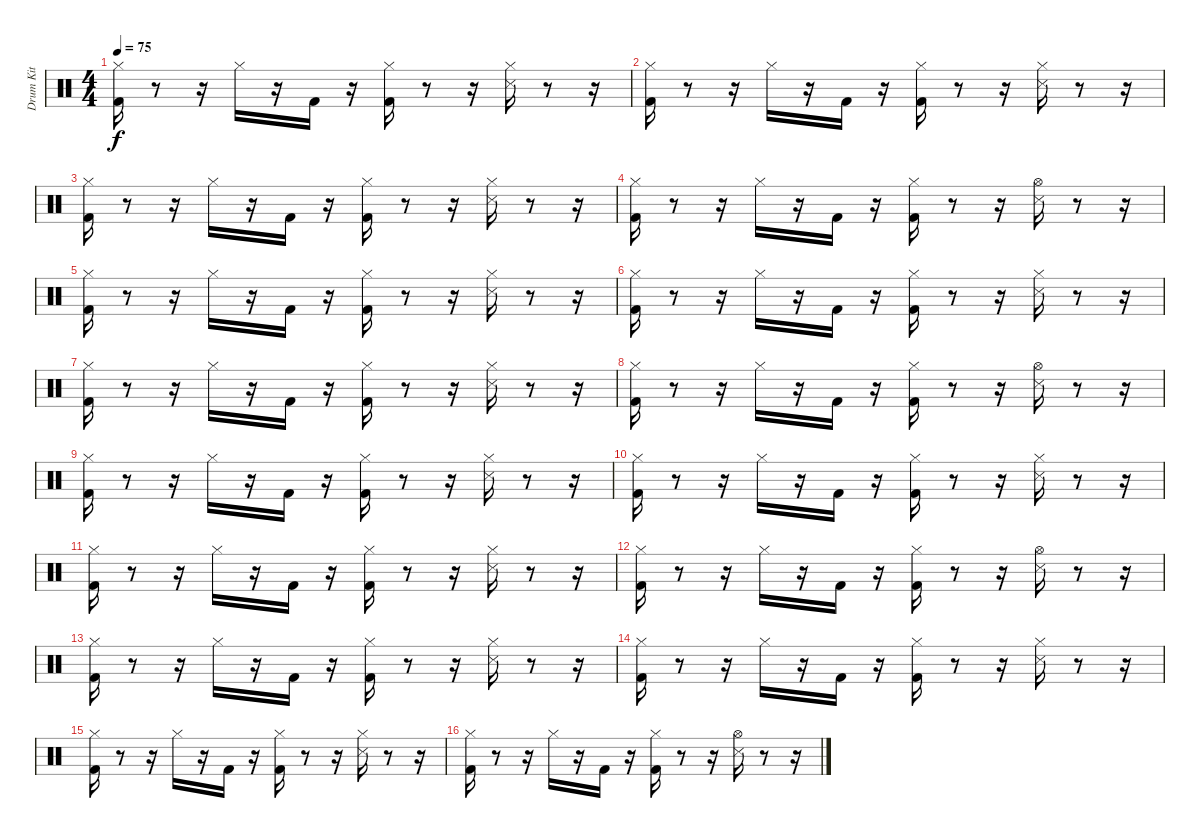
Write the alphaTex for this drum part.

\track ("Drum Kit" "Drum Kit") {instrument percussion}
\staff {score}
\articulation defaults
\ts (4 4)
\tempo 75
\clef neutral
\ks c
("Hi-Hat (closed)" "Kick (hit) 2").16{dy f} r.8 r.16 "Hi-Hat (closed)".16 r.16 "Kick (hit) 2".16 r.16 ("Kick (hit) 2" "Hi-Hat (closed)").16 r.8 r.16 ("Snare (side stick) 3" "Hi-Hat (closed)").16 r.8 r.16 |
("Kick (hit) 2" "Hi-Hat (closed)").16 r.8 r.16 "Hi-Hat (closed)".16 r.16 "Kick (hit) 2".16 r.16 ("Kick (hit) 2" "Hi-Hat (closed)").16 r.8 r.16 ("Snare (side stick) 3" "Hi-Hat (closed)").16 r.8 r.16 |
("Hi-Hat (closed)" "Kick (hit) 2").16 r.8 r.16 "Hi-Hat (closed)".16 r.16 "Kick (hit) 2".16 r.16 ("Kick (hit) 2" "Hi-Hat (closed)").16 r.8 r.16 ("Snare (side stick) 3" "Hi-Hat (closed)").16 r.8 r.16 |
("Hi-Hat (closed)" "Kick (hit) 2").16 r.8 r.16 "Hi-Hat (closed)".16 r.16 "Kick (hit) 2".16 r.16 ("Kick (hit) 2" "Hi-Hat (closed)").16 r.8 r.16 ("Snare (side stick) 3" "Hi-Hat (open)").16 r.8 r.16 |
("Hi-Hat (closed)" "Kick (hit) 2").16 r.8 r.16 "Hi-Hat (closed)".16 r.16 "Kick (hit) 2".16 r.16 ("Kick (hit) 2" "Hi-Hat (closed)").16 r.8 r.16 ("Snare (side stick) 3" "Hi-Hat (closed)").16 r.8 r.16 |
("Kick (hit) 2" "Hi-Hat (closed)").16 r.8 r.16 "Hi-Hat (closed)".16 r.16 "Kick (hit) 2".16 r.16 ("Kick (hit) 2" "Hi-Hat (closed)").16 r.8 r.16 ("Snare (side stick) 3" "Hi-Hat (closed)").16 r.8 r.16 |
("Hi-Hat (closed)" "Kick (hit) 2").16 r.8 r.16 "Hi-Hat (closed)".16 r.16 "Kick (hit) 2".16 r.16 ("Kick (hit) 2" "Hi-Hat (closed)").16 r.8 r.16 ("Snare (side stick) 3" "Hi-Hat (closed)").16 r.8 r.16 |
("Hi-Hat (closed)" "Kick (hit) 2").16 r.8 r.16 "Hi-Hat (closed)".16 r.16 "Kick (hit) 2".16 r.16 ("Kick (hit) 2" "Hi-Hat (closed)").16 r.8 r.16 ("Snare (side stick) 3" "Hi-Hat (open)").16 r.8 r.16 |
("Hi-Hat (closed)" "Kick (hit) 2").16 r.8 r.16 "Hi-Hat (closed)".16 r.16 "Kick (hit) 2".16 r.16 ("Kick (hit) 2" "Hi-Hat (closed)").16 r.8 r.16 ("Snare (side stick) 3" "Hi-Hat (closed)").16 r.8 r.16 |
("Kick (hit) 2" "Hi-Hat (closed)").16 r.8 r.16 "Hi-Hat (closed)".16 r.16 "Kick (hit) 2".16 r.16 ("Kick (hit) 2" "Hi-Hat (closed)").16 r.8 r.16 ("Snare (side stick) 3" "Hi-Hat (closed)").16 r.8 r.16 |
("Hi-Hat (closed)" "Kick (hit) 2").16 r.8 r.16 "Hi-Hat (closed)".16 r.16 "Kick (hit) 2".16 r.16 ("Kick (hit) 2" "Hi-Hat (closed)").16 r.8 r.16 ("Snare (side stick) 3" "Hi-Hat (closed)").16 r.8 r.16 |
("Hi-Hat (closed)" "Kick (hit) 2").16 r.8 r.16 "Hi-Hat (closed)".16 r.16 "Kick (hit) 2".16 r.16 ("Kick (hit) 2" "Hi-Hat (closed)").16 r.8 r.16 ("Snare (side stick) 3" "Hi-Hat (open)").16 r.8 r.16 |
("Hi-Hat (closed)" "Kick (hit) 2").16 r.8 r.16 "Hi-Hat (closed)".16 r.16 "Kick (hit) 2".16 r.16 ("Kick (hit) 2" "Hi-Hat (closed)").16 r.8 r.16 ("Snare (side stick) 3" "Hi-Hat (closed)").16 r.8 r.16 |
("Kick (hit) 2" "Hi-Hat (closed)").16 r.8 r.16 "Hi-Hat (closed)".16 r.16 "Kick (hit) 2".16 r.16 ("Kick (hit) 2" "Hi-Hat (closed)").16 r.8 r.16 ("Snare (side stick) 3" "Hi-Hat (closed)").16 r.8 r.16 |
("Hi-Hat (closed)" "Kick (hit) 2").16 r.8 r.16 "Hi-Hat (closed)".16 r.16 "Kick (hit) 2".16 r.16 ("Kick (hit) 2" "Hi-Hat (closed)").16 r.8 r.16 ("Snare (side stick) 3" "Hi-Hat (closed)").16 r.8 r.16 |
("Hi-Hat (closed)" "Kick (hit) 2").16 r.8 r.16 "Hi-Hat (closed)".16 r.16 "Kick (hit) 2".16 r.16 ("Kick (hit) 2" "Hi-Hat (closed)").16 r.8 r.16 ("Snare (side stick) 3" "Hi-Hat (open)").16 r.8 r.16
